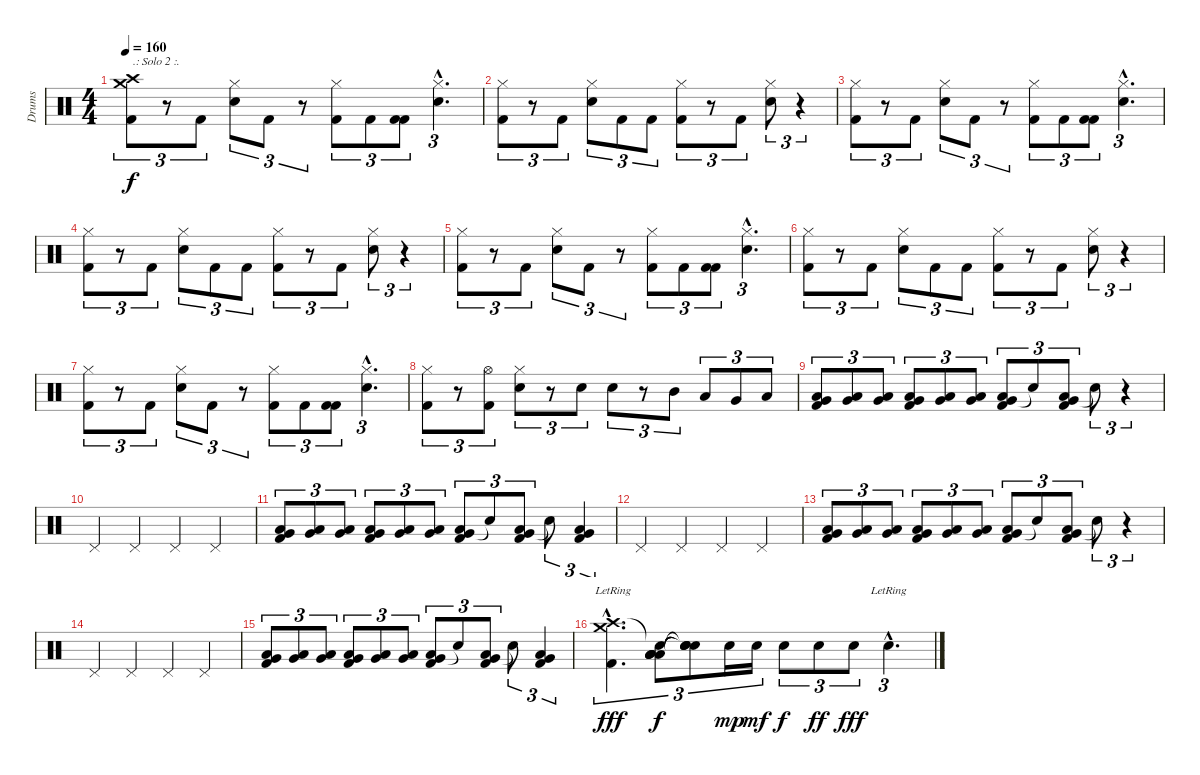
\track ("Drums" "Drums") {instrument percussion}
\staff {score}
\articulation defaults
\ts (4 4)
\tempo 160
\clef neutral
\ks c
("Crash medium (hit)" "Crash high (hit)" "Kick (hit) 2").8{tu (3 2) txt ".: Solo 2 :." dy f} r.8{tu (3 2)} "Kick (hit) 2".8{tu (3 2)} ("Hi-Hat (closed)" "Electric Snare (hit)").8{tu (3 2)} "Kick (hit) 2".8{tu (3 2)} r.8{tu (3 2)} ("Hi-Hat (closed)" "Kick (hit) 2").8{tu (3 2)} "Kick (hit) 2".8{tu (3 2)} ("Kick (hit) 2" "Kick (hit) 2").8{tu (3 2)} ("Hi-Hat (closed)"{hac} "Electric Snare (hit)"{hac}).4{d tu (3 2)} |
("Hi-Hat (closed)" "Kick (hit) 2").8{tu (3 2)} r.8{tu (3 2)} "Kick (hit) 2".8{tu (3 2)} ("Hi-Hat (closed)" "Electric Snare (hit)").8{tu (3 2)} "Kick (hit) 2".8{tu (3 2)} "Kick (hit) 2".8{tu (3 2)} ("Kick (hit) 2" "Hi-Hat (closed)").8{tu (3 2)} r.8{tu (3 2)} "Kick (hit) 2".8{tu (3 2)} ("Hi-Hat (closed)" "Electric Snare (hit)").8{tu (3 2)} r.4{tu (3 2)} |
("Hi-Hat (closed)" "Kick (hit) 2").8{tu (3 2)} r.8{tu (3 2)} "Kick (hit) 2".8{tu (3 2)} ("Hi-Hat (closed)" "Electric Snare (hit)").8{tu (3 2)} "Kick (hit) 2".8{tu (3 2)} r.8{tu (3 2)} ("Hi-Hat (closed)" "Kick (hit) 2").8{tu (3 2)} "Kick (hit) 2".8{tu (3 2)} ("Kick (hit) 2" "Kick (hit) 2").8{tu (3 2)} ("Hi-Hat (closed)"{hac} "Electric Snare (hit)"{hac}).4{d tu (3 2)} |
("Hi-Hat (closed)" "Kick (hit) 2").8{tu (3 2)} r.8{tu (3 2)} "Kick (hit) 2".8{tu (3 2)} ("Hi-Hat (closed)" "Electric Snare (hit)").8{tu (3 2)} "Kick (hit) 2".8{tu (3 2)} "Kick (hit) 2".8{tu (3 2)} ("Kick (hit) 2" "Hi-Hat (closed)").8{tu (3 2)} r.8{tu (3 2)} "Kick (hit) 2".8{tu (3 2)} ("Hi-Hat (closed)" "Electric Snare (hit)").8{tu (3 2)} r.4{tu (3 2)} |
("Hi-Hat (closed)" "Kick (hit) 2").8{tu (3 2)} r.8{tu (3 2)} "Kick (hit) 2".8{tu (3 2)} ("Hi-Hat (closed)" "Electric Snare (hit)").8{tu (3 2)} "Kick (hit) 2".8{tu (3 2)} r.8{tu (3 2)} ("Hi-Hat (closed)" "Kick (hit) 2").8{tu (3 2)} "Kick (hit) 2".8{tu (3 2)} ("Kick (hit) 2" "Kick (hit) 2").8{tu (3 2)} ("Hi-Hat (closed)"{hac} "Electric Snare (hit)"{hac}).4{d tu (3 2)} |
("Hi-Hat (closed)" "Kick (hit) 2").8{tu (3 2)} r.8{tu (3 2)} "Kick (hit) 2".8{tu (3 2)} ("Hi-Hat (closed)" "Electric Snare (hit)").8{tu (3 2)} "Kick (hit) 2".8{tu (3 2)} "Kick (hit) 2".8{tu (3 2)} ("Kick (hit) 2" "Hi-Hat (closed)").8{tu (3 2)} r.8{tu (3 2)} "Kick (hit) 2".8{tu (3 2)} ("Hi-Hat (closed)" "Electric Snare (hit)").8{tu (3 2)} r.4{tu (3 2)} |
("Hi-Hat (closed)" "Kick (hit) 2").8{tu (3 2)} r.8{tu (3 2)} "Kick (hit) 2".8{tu (3 2)} ("Hi-Hat (closed)" "Electric Snare (hit)").8{tu (3 2)} "Kick (hit) 2".8{tu (3 2)} r.8{tu (3 2)} ("Hi-Hat (closed)" "Kick (hit) 2").8{tu (3 2)} "Kick (hit) 2".8{tu (3 2)} ("Kick (hit) 2" "Kick (hit) 2").8{tu (3 2)} ("Hi-Hat (closed)"{hac} "Electric Snare (hit)"{hac}).4{d tu (3 2)} |
("Hi-Hat (closed)" "Kick (hit) 2").8{tu (3 2)} r.8{tu (3 2)} ("Kick (hit) 2" "Hi-Hat (open)").8{tu (3 2)} ("Hi-Hat (closed)" "Electric Snare (hit)").8{tu (3 2)} r.8{tu (3 2)} "Electric Snare (hit)".8{tu (3 2)} "Electric Snare (hit)".8{tu (3 2)} r.8{tu (3 2)} "Mid Tom (hit)".8{tu (3 2)} "Low Tom (hit)".8{tu (3 2)} "Very Low Tom (hit)".8{tu (3 2)} "Low Floor Tom (hit)".8{tu (3 2)} |
("Low Tom (hit)" "Very Low Tom (hit)" "Kick (hit) 2").8{tu (3 2)} ("Low Tom (hit)" "Very Low Tom (hit)").8{tu (3 2)} ("Low Tom (hit)" "Very Low Tom (hit)").8{tu (3 2)} ("Low Tom (hit)" "Very Low Tom (hit)" "Kick (hit) 2").8{tu (3 2)} ("Low Tom (hit)" "Very Low Tom (hit)").8{tu (3 2)} ("Low Tom (hit)" "Very Low Tom (hit)").8{tu (3 2)} ("Very Low Tom (hit)" "Low Floor Tom (hit)" "Kick (hit) 2").8{tu (3 2)} "Snare (hit)"{t}.8{tu (3 2)} ("Very Low Tom (hit)" "Low Floor Tom (hit)" "Kick (hit) 2").8{tu (3 2)} "Snare (hit)"{t}.8{tu (3 2)} r.4{tu (3 2)} |
"Pedal Hi-Hat (hit)".4 "Pedal Hi-Hat (hit)".4 "Pedal Hi-Hat (hit)".4 "Pedal Hi-Hat (hit)".4 |
("Low Tom (hit)" "Very Low Tom (hit)" "Kick (hit) 2").8{tu (3 2)} ("Low Tom (hit)" "Very Low Tom (hit)").8{tu (3 2)} ("Low Tom (hit)" "Very Low Tom (hit)").8{tu (3 2)} ("Low Tom (hit)" "Very Low Tom (hit)" "Kick (hit) 2").8{tu (3 2)} ("Low Tom (hit)" "Very Low Tom (hit)").8{tu (3 2)} ("Low Tom (hit)" "Very Low Tom (hit)").8{tu (3 2)} ("Very Low Tom (hit)" "Low Floor Tom (hit)" "Kick (hit) 2").8{tu (3 2)} "Snare (hit)"{t}.8{tu (3 2)} ("Very Low Tom (hit)" "Low Floor Tom (hit)" "Kick (hit) 2").8{tu (3 2)} "Snare (hit)"{t}.8{tu (3 2)} ("Very Low Tom (hit)" "Low Floor Tom (hit)" "Kick (hit) 2").4{tu (3 2)} |
"Pedal Hi-Hat (hit)".4 "Pedal Hi-Hat (hit)".4 "Pedal Hi-Hat (hit)".4 "Pedal Hi-Hat (hit)".4 |
("Low Tom (hit)" "Very Low Tom (hit)" "Kick (hit) 2").8{tu (3 2)} ("Low Tom (hit)" "Very Low Tom (hit)").8{tu (3 2)} ("Low Tom (hit)" "Very Low Tom (hit)").8{tu (3 2)} ("Low Tom (hit)" "Very Low Tom (hit)" "Kick (hit) 2").8{tu (3 2)} ("Low Tom (hit)" "Very Low Tom (hit)").8{tu (3 2)} ("Low Tom (hit)" "Very Low Tom (hit)").8{tu (3 2)} ("Very Low Tom (hit)" "Low Floor Tom (hit)" "Kick (hit) 2").8{tu (3 2)} "Snare (hit)"{t}.8{tu (3 2)} ("Very Low Tom (hit)" "Low Floor Tom (hit)" "Kick (hit) 2").8{tu (3 2)} "Snare (hit)"{t}.8{tu (3 2)} r.4{tu (3 2)} |
"Pedal Hi-Hat (hit)".4 "Pedal Hi-Hat (hit)".4 "Pedal Hi-Hat (hit)".4 "Pedal Hi-Hat (hit)".4 |
("Low Tom (hit)" "Very Low Tom (hit)" "Kick (hit) 2").8{tu (3 2)} ("Low Tom (hit)" "Very Low Tom (hit)").8{tu (3 2)} ("Low Tom (hit)" "Very Low Tom (hit)").8{tu (3 2)} ("Low Tom (hit)" "Very Low Tom (hit)" "Kick (hit) 2").8{tu (3 2)} ("Low Tom (hit)" "Very Low Tom (hit)").8{tu (3 2)} ("Low Tom (hit)" "Very Low Tom (hit)").8{tu (3 2)} ("Very Low Tom (hit)" "Low Floor Tom (hit)" "Kick (hit) 2").8{tu (3 2)} "Snare (hit)"{t}.8{tu (3 2)} ("Very Low Tom (hit)" "Low Floor Tom (hit)" "Kick (hit) 2").8{tu (3 2)} "Snare (hit)"{t}.8{tu (3 2)} ("Very Low Tom (hit)" "Low Floor Tom (hit)" "Kick (hit) 2").4{tu (3 2)} |
("Crash high (hit)"{hac lr} "Crash medium (hit)"{hac} "Kick (hit) 2"{hac}).4{d tu (3 2) dy fff} ("Snare (hit)"{t} "Low Tom (hit)" "Low Tom (hit)" "Low Tom (hit)" "Low Tom (hit)").8{tu (3 2) dy f} ("Snare (hit)"{t} "Snare (hit)"{t} "Snare (hit)"{t} "Snare (hit)"{t}).8{tu (3 2)} "Electric Snare (hit)".16{tu (3 2) dy mp} "Electric Snare (hit)".16{tu (3 2) dy mf} "Electric Snare (hit)".8{tu (3 2) dy f} "Electric Snare (hit)".8{tu (3 2) dy ff} "Electric Snare (hit)".8{tu (3 2) dy fff} "Electric Snare (hit)"{hac lr}.4{d tu (3 2)}
